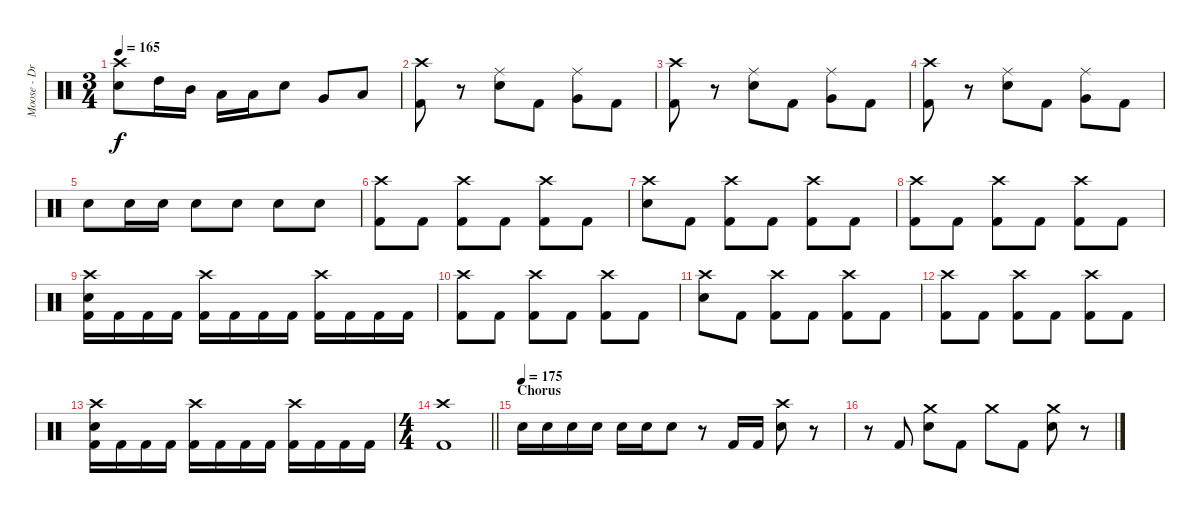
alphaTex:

\track ("Moose - Drums" "Moose - Dr") {instrument percussion}
\staff {score}
\articulation defaults
\ts (3 4)
\tempo 165
\clef neutral
\ks c
("Crash high (hit)" "Electric Snare (hit)").8{dy f} "High Tom (hit)".16 "Mid Tom (hit)".16 "Low Tom (hit)".16 "Low Tom (hit)".16 "Electric Snare (hit)".8 "Very Low Tom (hit)".8 "Low Floor Tom (hit)".8 |
("Crash high (hit)" "Kick (hit) 2").8 r.8 ("Ride (middle)" "Electric Snare (hit)").8 "Kick (hit) 2".8 ("Ride (middle)" "Very Low Tom (hit)").8 "Kick (hit) 2".8 |
("Crash high (hit)" "Kick (hit) 2").8 r.8 ("Ride (middle)" "Electric Snare (hit)").8 "Kick (hit) 2".8 ("Ride (middle)" "Very Low Tom (hit)").8 "Kick (hit) 2".8 |
("Crash high (hit)" "Kick (hit) 2").8 r.8 ("Ride (middle)" "Electric Snare (hit)").8 "Kick (hit) 2".8 ("Ride (middle)" "Very Low Tom (hit)").8 "Kick (hit) 2".8 |
"Electric Snare (hit)".8 "Electric Snare (hit)".16 "Electric Snare (hit)".16 "Electric Snare (hit)".8 "Electric Snare (hit)".8 "Electric Snare (hit)".8 "Electric Snare (hit)".8 |
("Crash high (hit)" "Kick (hit) 2").8 "Kick (hit) 2".8 ("Crash high (hit)" "Kick (hit) 2").8 "Kick (hit) 2".8 ("Crash high (hit)" "Kick (hit) 2").8 "Kick (hit) 2".8 |
("Crash high (hit)" "Electric Snare (hit)").8 "Kick (hit) 2".8 ("Crash high (hit)" "Kick (hit) 2").8 "Kick (hit) 2".8 ("Crash high (hit)" "Kick (hit) 2").8 "Kick (hit) 2".8 |
("Crash high (hit)" "Kick (hit) 2").8 "Kick (hit) 2".8 ("Crash high (hit)" "Kick (hit) 2").8 "Kick (hit) 2".8 ("Crash high (hit)" "Kick (hit) 2").8 "Kick (hit) 2".8 |
("Crash high (hit)" "Electric Snare (hit)" "Kick (hit) 2").16 "Kick (hit) 2".16 "Kick (hit) 2".16 "Kick (hit) 2".16 ("Crash high (hit)" "Kick (hit) 2").16 "Kick (hit) 2".16 "Kick (hit) 2".16 "Kick (hit) 2".16 ("Crash high (hit)" "Kick (hit) 2").16 "Kick (hit) 2".16 "Kick (hit) 2".16 "Kick (hit) 2".16 |
("Crash high (hit)" "Kick (hit) 2").8 "Kick (hit) 2".8 ("Crash high (hit)" "Kick (hit) 2").8 "Kick (hit) 2".8 ("Crash high (hit)" "Kick (hit) 2").8 "Kick (hit) 2".8 |
("Crash high (hit)" "Electric Snare (hit)").8 "Kick (hit) 2".8 ("Crash high (hit)" "Kick (hit) 2").8 "Kick (hit) 2".8 ("Crash high (hit)" "Kick (hit) 2").8 "Kick (hit) 2".8 |
("Crash high (hit)" "Kick (hit) 2").8 "Kick (hit) 2".8 ("Crash high (hit)" "Kick (hit) 2").8 "Kick (hit) 2".8 ("Crash high (hit)" "Kick (hit) 2").8 "Kick (hit) 2".8 |
("Crash high (hit)" "Electric Snare (hit)" "Kick (hit) 2").16 "Kick (hit) 2".16 "Kick (hit) 2".16 "Kick (hit) 2".16 ("Crash high (hit)" "Kick (hit) 2").16 "Kick (hit) 2".16 "Kick (hit) 2".16 "Kick (hit) 2".16 ("Crash high (hit)" "Kick (hit) 2").16 "Kick (hit) 2".16 "Kick (hit) 2".16 "Kick (hit) 2".16 |
\ts (4 4)
\barLineRight lightlight
("Crash high (hit)" "Kick (hit) 2").1 |
\section ("" "Chorus")
\tempo (175)
"Electric Snare (hit)".16 "Electric Snare (hit)".16 "Electric Snare (hit)".16 "Electric Snare (hit)".16 "Electric Snare (hit)".16 "Electric Snare (hit)".16 "Electric Snare (hit)".8 r.8 "Kick (hit) 2".16 "Kick (hit) 2".16 ("Crash high (hit)" "Electric Snare (hit)").8 r.8 |
r.8 "Kick (hit) 2".8 ("Crash medium (hit)" "Electric Snare (hit)").8 "Kick (hit) 2".8 "Crash medium (hit)".8 "Kick (hit) 2".8 ("Crash medium (hit)" "Electric Snare (hit)").8 r.8
